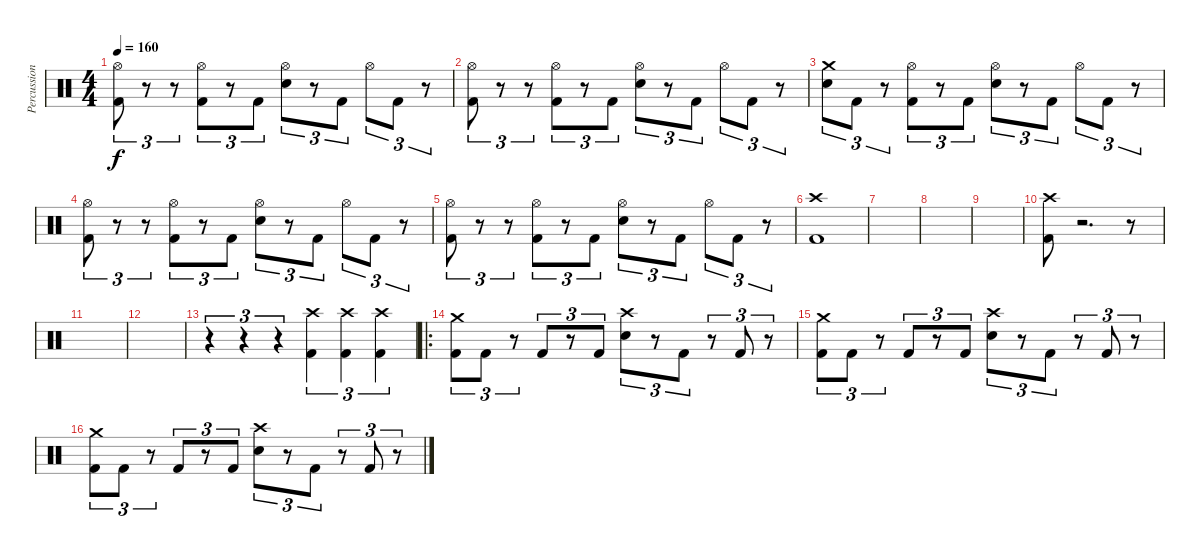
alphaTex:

\track ("Percussion" "Percussion") {instrument percussion}
\staff {score}
\articulation defaults
\ts (4 4)
\tempo 160
\clef neutral
\ks c
("Hi-Hat (open)" "Kick (hit) 2").8{tu (3 2) dy f} r.8{tu (3 2)} r.8{tu (3 2)} ("Hi-Hat (open)" "Kick (hit) 2").8{tu (3 2)} r.8{tu (3 2)} "Kick (hit) 2".8{tu (3 2)} ("Hi-Hat (open)" "Electric Snare (hit)").8{tu (3 2)} r.8{tu (3 2)} "Kick (hit) 2".8{tu (3 2)} "Hi-Hat (open)".8{tu (3 2)} "Kick (hit) 2".8{tu (3 2)} r.8{tu (3 2)} |
("Hi-Hat (open)" "Kick (hit) 2").8{tu (3 2)} r.8{tu (3 2)} r.8{tu (3 2)} ("Hi-Hat (open)" "Kick (hit) 2").8{tu (3 2)} r.8{tu (3 2)} "Kick (hit) 2".8{tu (3 2)} ("Hi-Hat (open)" "Electric Snare (hit)").8{tu (3 2)} r.8{tu (3 2)} "Kick (hit) 2".8{tu (3 2)} "Hi-Hat (open)".8{tu (3 2)} "Kick (hit) 2".8{tu (3 2)} r.8{tu (3 2)} |
("Crash medium (hit)" "Electric Snare (hit)").8{tu (3 2)} "Kick (hit) 2".8{tu (3 2)} r.8{tu (3 2)} ("Hi-Hat (open)" "Kick (hit) 2").8{tu (3 2)} r.8{tu (3 2)} "Kick (hit) 2".8{tu (3 2)} ("Hi-Hat (open)" "Electric Snare (hit)").8{tu (3 2)} r.8{tu (3 2)} "Kick (hit) 2".8{tu (3 2)} "Hi-Hat (open)".8{tu (3 2)} "Kick (hit) 2".8{tu (3 2)} r.8{tu (3 2)} |
("Hi-Hat (open)" "Kick (hit) 2").8{tu (3 2)} r.8{tu (3 2)} r.8{tu (3 2)} ("Hi-Hat (open)" "Kick (hit) 2").8{tu (3 2)} r.8{tu (3 2)} "Kick (hit) 2".8{tu (3 2)} ("Hi-Hat (open)" "Electric Snare (hit)").8{tu (3 2)} r.8{tu (3 2)} "Kick (hit) 2".8{tu (3 2)} "Hi-Hat (open)".8{tu (3 2)} "Kick (hit) 2".8{tu (3 2)} r.8{tu (3 2)} |
("Hi-Hat (open)" "Kick (hit) 2").8{tu (3 2)} r.8{tu (3 2)} r.8{tu (3 2)} ("Hi-Hat (open)" "Kick (hit) 2").8{tu (3 2)} r.8{tu (3 2)} "Kick (hit) 2".8{tu (3 2)} ("Hi-Hat (open)" "Electric Snare (hit)").8{tu (3 2)} r.8{tu (3 2)} "Kick (hit) 2".8{tu (3 2)} "Hi-Hat (open)".8{tu (3 2)} "Kick (hit) 2".8{tu (3 2)} r.8{tu (3 2)} |
("Crash high (hit)" "Kick (hit) 2").1 |
|
|
|
("Crash high (hit)" "Kick (hit) 2").8 r.2{d} r.8 |
|
|
r.4{tu (3 2)} r.4{tu (3 2)} r.4{tu (3 2)} ("Crash high (hit)" "Kick (hit) 2").4{tu (3 2)} ("Crash high (hit)" "Kick (hit) 2").4{tu (3 2)} ("Crash high (hit)" "Kick (hit) 2").4{tu (3 2)} |
\ro
("Crash medium (hit)" "Kick (hit) 2").8{tu (3 2)} "Kick (hit) 2".8{tu (3 2)} r.8{tu (3 2)} "Kick (hit) 2".8{tu (3 2)} r.8{tu (3 2)} "Kick (hit) 2".8{tu (3 2)} ("Crash high (hit)" "Electric Snare (hit)").8{tu (3 2)} r.8{tu (3 2)} "Kick (hit) 2".8{tu (3 2)} r.8{tu (3 2)} "Kick (hit) 2".8{tu (3 2)} r.8{tu (3 2)} |
("Crash medium (hit)" "Kick (hit) 2").8{tu (3 2)} "Kick (hit) 2".8{tu (3 2)} r.8{tu (3 2)} "Kick (hit) 2".8{tu (3 2)} r.8{tu (3 2)} "Kick (hit) 2".8{tu (3 2)} ("Crash high (hit)" "Electric Snare (hit)").8{tu (3 2)} r.8{tu (3 2)} "Kick (hit) 2".8{tu (3 2)} r.8{tu (3 2)} "Kick (hit) 2".8{tu (3 2)} r.8{tu (3 2)} |
("Crash medium (hit)" "Kick (hit) 2").8{tu (3 2)} "Kick (hit) 2".8{tu (3 2)} r.8{tu (3 2)} "Kick (hit) 2".8{tu (3 2)} r.8{tu (3 2)} "Kick (hit) 2".8{tu (3 2)} ("Crash high (hit)" "Electric Snare (hit)").8{tu (3 2)} r.8{tu (3 2)} "Kick (hit) 2".8{tu (3 2)} r.8{tu (3 2)} "Kick (hit) 2".8{tu (3 2)} r.8{tu (3 2)}
